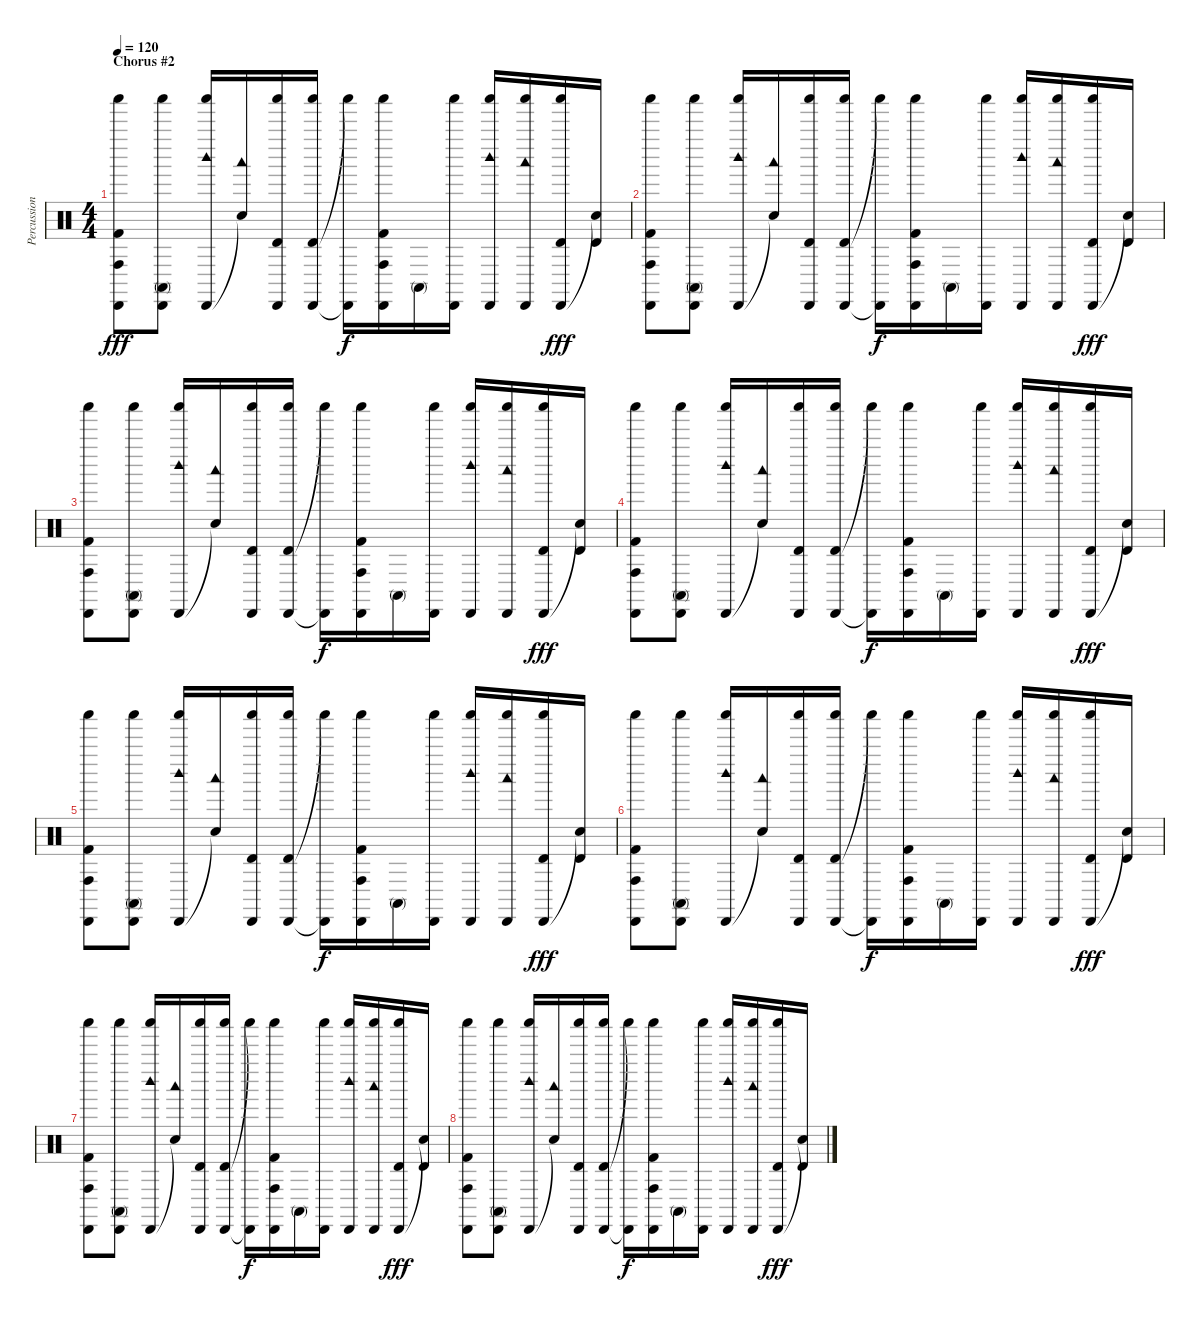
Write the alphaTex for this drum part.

\track ("Percussion" "Percussion") {instrument percussion}
\staff {score}
\articulation defaults
\ts (4 4)
\section ("" "Chorus #2")
\tempo 120
\clef neutral
\ks c
("Cabasa (hit)" "Conga high (hit)" "Kick (hit) 2" "Shaker (hit)").8{dy fff} ("Cabasa (hit)" "Conga high (mute)" "Shaker (hit)").8 ("Cabasa (hit)" "Woodblock high (hit)" "Shaker (hit)").16 ("Snare (hit)"{t} "Woodblock low (hit)").16 ("Cabasa (hit)" "Timbale high (hit)" "Shaker (hit)").16 ("Cabasa (hit)" "Timbale high (hit)" "Shaker (hit)").16 ("Cabasa (hit)"{t} "Shaker (hit)"{t}).16{dy f} ("Cabasa (hit)" "Conga high (hit)" "Kick (hit) 2" "Shaker (hit)").16 "Conga high (mute)".16 ("Cabasa (hit)" "Shaker (hit)").16 ("Cabasa (hit)" "Woodblock high (hit)" "Shaker (hit)").16 ("Cabasa (hit)" "Woodblock low (hit)" "Shaker (hit)").16 ("Cabasa (hit)" "Timbale high (hit)" "Shaker (hit)").16{dy fff} ("Snare (hit)"{t} "Timbale high (hit)").16 |
("Cabasa (hit)" "Conga high (hit)" "Kick (hit) 2" "Shaker (hit)").8 ("Cabasa (hit)" "Conga high (mute)" "Shaker (hit)").8 ("Cabasa (hit)" "Woodblock high (hit)" "Shaker (hit)").16 ("Snare (hit)"{t} "Woodblock low (hit)").16 ("Cabasa (hit)" "Timbale high (hit)" "Shaker (hit)").16 ("Cabasa (hit)" "Timbale high (hit)" "Shaker (hit)").16 ("Cabasa (hit)"{t} "Shaker (hit)"{t}).16{dy f} ("Cabasa (hit)" "Conga high (hit)" "Kick (hit) 2" "Shaker (hit)").16 "Conga high (mute)".16 ("Cabasa (hit)" "Shaker (hit)").16 ("Cabasa (hit)" "Woodblock high (hit)" "Shaker (hit)").16 ("Cabasa (hit)" "Woodblock low (hit)" "Shaker (hit)").16 ("Cabasa (hit)" "Timbale high (hit)" "Shaker (hit)").16{dy fff} ("Snare (hit)"{t} "Timbale high (hit)").16 |
("Cabasa (hit)" "Conga high (hit)" "Kick (hit) 2" "Shaker (hit)").8 ("Cabasa (hit)" "Conga high (mute)" "Shaker (hit)").8 ("Cabasa (hit)" "Woodblock high (hit)" "Shaker (hit)").16 ("Snare (hit)"{t} "Woodblock low (hit)").16 ("Cabasa (hit)" "Timbale high (hit)" "Shaker (hit)").16 ("Cabasa (hit)" "Timbale high (hit)" "Shaker (hit)").16 ("Cabasa (hit)"{t} "Shaker (hit)"{t}).16{dy f} ("Cabasa (hit)" "Conga high (hit)" "Kick (hit) 2" "Shaker (hit)").16 "Conga high (mute)".16 ("Cabasa (hit)" "Shaker (hit)").16 ("Cabasa (hit)" "Woodblock high (hit)" "Shaker (hit)").16 ("Cabasa (hit)" "Woodblock low (hit)" "Shaker (hit)").16 ("Cabasa (hit)" "Timbale high (hit)" "Shaker (hit)").16{dy fff} ("Snare (hit)"{t} "Timbale high (hit)").16 |
("Cabasa (hit)" "Conga high (hit)" "Kick (hit) 2" "Shaker (hit)").8 ("Cabasa (hit)" "Conga high (mute)" "Shaker (hit)").8 ("Cabasa (hit)" "Woodblock high (hit)" "Shaker (hit)").16 ("Snare (hit)"{t} "Woodblock low (hit)").16 ("Cabasa (hit)" "Timbale high (hit)" "Shaker (hit)").16 ("Cabasa (hit)" "Timbale high (hit)" "Shaker (hit)").16 ("Cabasa (hit)"{t} "Shaker (hit)"{t}).16{dy f} ("Cabasa (hit)" "Conga high (hit)" "Kick (hit) 2" "Shaker (hit)").16 "Conga high (mute)".16 ("Cabasa (hit)" "Shaker (hit)").16 ("Cabasa (hit)" "Woodblock high (hit)" "Shaker (hit)").16 ("Cabasa (hit)" "Woodblock low (hit)" "Shaker (hit)").16 ("Cabasa (hit)" "Timbale high (hit)" "Shaker (hit)").16{dy fff} ("Snare (hit)"{t} "Timbale high (hit)").16 |
("Cabasa (hit)" "Conga high (hit)" "Kick (hit) 2" "Shaker (hit)").8 ("Cabasa (hit)" "Conga high (mute)" "Shaker (hit)").8 ("Cabasa (hit)" "Woodblock high (hit)" "Shaker (hit)").16 ("Snare (hit)"{t} "Woodblock low (hit)").16 ("Cabasa (hit)" "Timbale high (hit)" "Shaker (hit)").16 ("Cabasa (hit)" "Timbale high (hit)" "Shaker (hit)").16 ("Cabasa (hit)"{t} "Shaker (hit)"{t}).16{dy f} ("Cabasa (hit)" "Conga high (hit)" "Kick (hit) 2" "Shaker (hit)").16 "Conga high (mute)".16 ("Cabasa (hit)" "Shaker (hit)").16 ("Cabasa (hit)" "Woodblock high (hit)" "Shaker (hit)").16 ("Cabasa (hit)" "Woodblock low (hit)" "Shaker (hit)").16 ("Cabasa (hit)" "Timbale high (hit)" "Shaker (hit)").16{dy fff} ("Snare (hit)"{t} "Timbale high (hit)").16 |
("Cabasa (hit)" "Conga high (hit)" "Kick (hit) 2" "Shaker (hit)").8 ("Cabasa (hit)" "Conga high (mute)" "Shaker (hit)").8 ("Cabasa (hit)" "Woodblock high (hit)" "Shaker (hit)").16 ("Snare (hit)"{t} "Woodblock low (hit)").16 ("Cabasa (hit)" "Timbale high (hit)" "Shaker (hit)").16 ("Cabasa (hit)" "Timbale high (hit)" "Shaker (hit)").16 ("Cabasa (hit)"{t} "Shaker (hit)"{t}).16{dy f} ("Cabasa (hit)" "Conga high (hit)" "Kick (hit) 2" "Shaker (hit)").16 "Conga high (mute)".16 ("Cabasa (hit)" "Shaker (hit)").16 ("Cabasa (hit)" "Woodblock high (hit)" "Shaker (hit)").16 ("Cabasa (hit)" "Woodblock low (hit)" "Shaker (hit)").16 ("Cabasa (hit)" "Timbale high (hit)" "Shaker (hit)").16{dy fff} ("Snare (hit)"{t} "Timbale high (hit)").16 |
("Cabasa (hit)" "Conga high (hit)" "Kick (hit) 2" "Shaker (hit)").8 ("Cabasa (hit)" "Conga high (mute)" "Shaker (hit)").8 ("Cabasa (hit)" "Woodblock high (hit)" "Shaker (hit)").16 ("Snare (hit)"{t} "Woodblock low (hit)").16 ("Cabasa (hit)" "Timbale high (hit)" "Shaker (hit)").16 ("Cabasa (hit)" "Timbale high (hit)" "Shaker (hit)").16 ("Cabasa (hit)"{t} "Shaker (hit)"{t}).16{dy f} ("Cabasa (hit)" "Conga high (hit)" "Kick (hit) 2" "Shaker (hit)").16 "Conga high (mute)".16 ("Cabasa (hit)" "Shaker (hit)").16 ("Cabasa (hit)" "Woodblock high (hit)" "Shaker (hit)").16 ("Cabasa (hit)" "Woodblock low (hit)" "Shaker (hit)").16 ("Cabasa (hit)" "Timbale high (hit)" "Shaker (hit)").16{dy fff} ("Snare (hit)"{t} "Timbale high (hit)").16 |
("Cabasa (hit)" "Conga high (hit)" "Kick (hit) 2" "Shaker (hit)").8 ("Cabasa (hit)" "Conga high (mute)" "Shaker (hit)").8 ("Cabasa (hit)" "Woodblock high (hit)" "Shaker (hit)").16 ("Snare (hit)"{t} "Woodblock low (hit)").16 ("Cabasa (hit)" "Timbale high (hit)" "Shaker (hit)").16 ("Cabasa (hit)" "Timbale high (hit)" "Shaker (hit)").16 ("Cabasa (hit)"{t} "Shaker (hit)"{t}).16{dy f} ("Cabasa (hit)" "Conga high (hit)" "Kick (hit) 2" "Shaker (hit)").16 "Conga high (mute)".16 ("Cabasa (hit)" "Shaker (hit)").16 ("Cabasa (hit)" "Woodblock high (hit)" "Shaker (hit)").16 ("Cabasa (hit)" "Woodblock low (hit)" "Shaker (hit)").16 ("Cabasa (hit)" "Timbale high (hit)" "Shaker (hit)").16{dy fff} ("Snare (hit)"{t} "Timbale high (hit)").16
